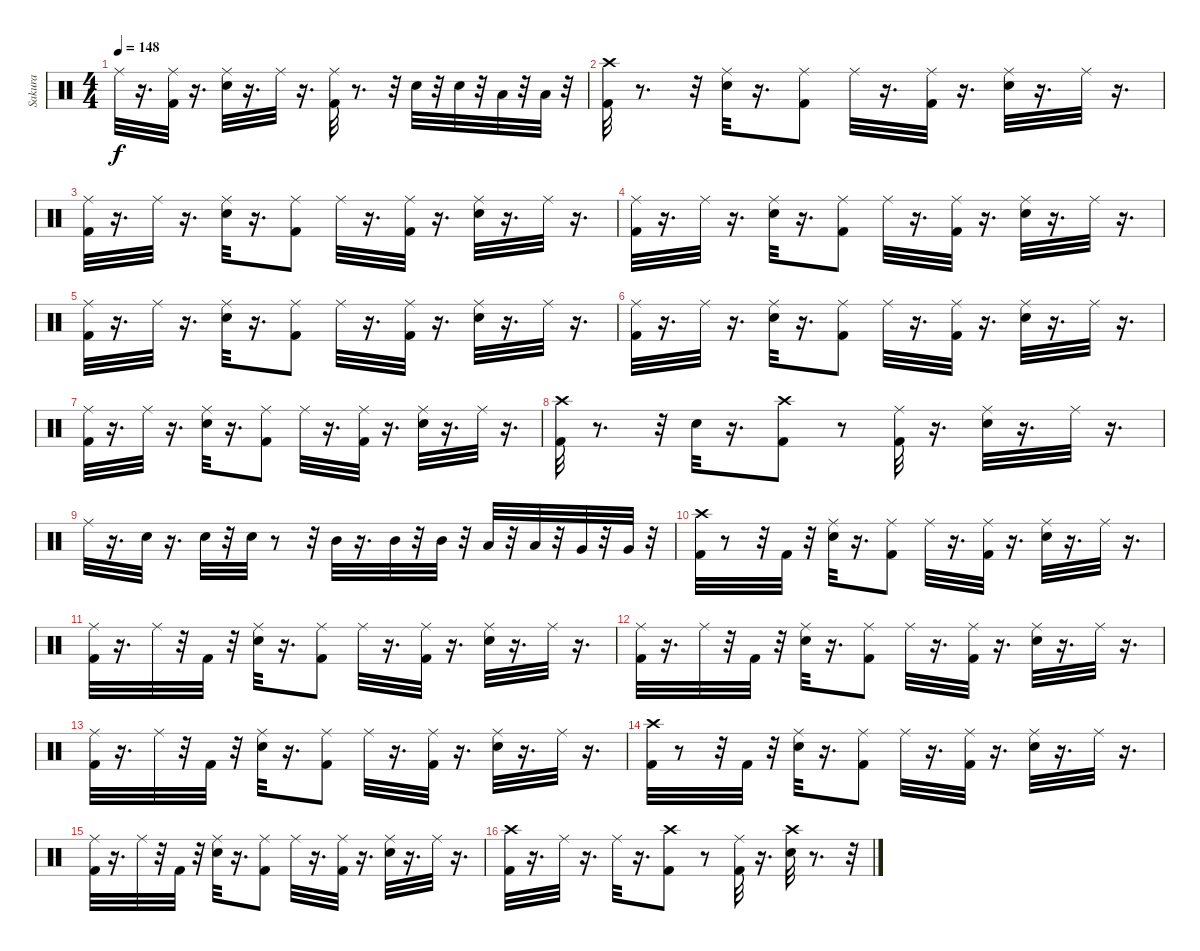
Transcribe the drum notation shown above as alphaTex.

\track ("Sakura" "Sakura") {instrument percussion}
\staff {score}
\articulation defaults
\ts (4 4)
\tempo 148
\clef neutral
\ks c "Ride (middle)".32{dy f}
r.16{d} ("Ride (middle)" "Kick (hit) 2").32 r.16{d} ("Ride (middle)" "Snare (hit) 2").32 r.16{d} "Ride (middle)".32 r.16{d} ("Ride (middle)" "Kick (hit) 2").32 r.8{d} r.32 "Snare (hit) 2".32 r.32 "Snare (hit) 2".32 r.32 "Low Tom (hit)".32 r.32 "Low Tom (hit)".32 r.32 |
("Crash high (hit)" "Kick (hit) 2").32 r.8{d} r.32 ("Snare (hit) 2" "Ride (middle)").32 r.16{d} ("Ride (middle)" "Kick (hit) 2").8 "Ride (middle)".32 r.16{d} ("Kick (hit) 2" "Ride (middle)").32 r.16{d} ("Ride (middle)" "Snare (hit) 2").32 r.16{d} "Ride (middle)".32 r.16{d} |
("Ride (middle)" "Kick (hit) 2").32 r.16{d} "Ride (middle)".32 r.16{d} ("Snare (hit) 2" "Ride (middle)").32 r.16{d} ("Ride (middle)" "Kick (hit) 2").8 "Ride (middle)".32 r.16{d} ("Kick (hit) 2" "Ride (middle)").32 r.16{d} ("Ride (middle)" "Snare (hit) 2").32 r.16{d} "Ride (middle)".32 r.16{d} |
("Ride (middle)" "Kick (hit) 2").32 r.16{d} "Ride (middle)".32 r.16{d} ("Snare (hit) 2" "Ride (middle)").32 r.16{d} ("Ride (middle)" "Kick (hit) 2").8 "Ride (middle)".32 r.16{d} ("Kick (hit) 2" "Ride (middle)").32 r.16{d} ("Ride (middle)" "Snare (hit) 2").32 r.16{d} "Ride (middle)".32 r.16{d} |
("Ride (middle)" "Kick (hit) 2").32 r.16{d} "Ride (middle)".32 r.16{d} ("Snare (hit) 2" "Ride (middle)").32 r.16{d} ("Ride (middle)" "Kick (hit) 2").8 "Ride (middle)".32 r.16{d} ("Kick (hit) 2" "Ride (middle)").32 r.16{d} ("Ride (middle)" "Snare (hit) 2").32 r.16{d} "Ride (middle)".32 r.16{d} |
("Ride (middle)" "Kick (hit) 2").32 r.16{d} "Ride (middle)".32 r.16{d} ("Snare (hit) 2" "Ride (middle)").32 r.16{d} ("Ride (middle)" "Kick (hit) 2").8 "Ride (middle)".32 r.16{d} ("Kick (hit) 2" "Ride (middle)").32 r.16{d} ("Ride (middle)" "Snare (hit) 2").32 r.16{d} "Ride (middle)".32 r.16{d} |
("Ride (middle)" "Kick (hit) 2").32 r.16{d} "Ride (middle)".32 r.16{d} ("Snare (hit) 2" "Ride (middle)").32 r.16{d} ("Ride (middle)" "Kick (hit) 2").8 "Ride (middle)".32 r.16{d} ("Kick (hit) 2" "Ride (middle)").32 r.16{d} ("Ride (middle)" "Snare (hit) 2").32 r.16{d} "Ride (middle)".32 r.16{d} |
("Crash high (hit)" "Kick (hit) 2").32 r.8{d} r.32 "Snare (hit) 2".32 r.16{d} ("Crash high (hit)" "Kick (hit) 2").8 r.8 ("Ride (middle)" "Kick (hit) 2").32 r.16{d} ("Ride (middle)" "Snare (hit) 2").32 r.16{d} "Ride (middle)".32 r.16{d} |
"Ride (middle)".32 r.16{d} "Snare (hit) 2".32 r.16{d} "Snare (hit) 2".32 r.32 "Snare (hit) 2".32 r.8 r.32 "Mid Tom (hit)".32 r.16{d} "Mid Tom (hit)".32 r.32 "Mid Tom (hit)".32 r.32 "Low Tom (hit)".32 r.32 "Low Tom (hit)".32 r.32 "Very Low Tom (hit)".32 r.32 "Very Low Tom (hit)".32 r.32 |
("Crash high (hit)" "Kick (hit) 2").32 r.8 r.32 "Kick (hit) 2".32 r.32 ("Ride (middle)" "Snare (hit) 2").32 r.16{d} ("Ride (middle)" "Kick (hit) 2").8 "Ride (middle)".32 r.16{d} ("Ride (middle)" "Kick (hit) 2").32 r.16{d} ("Ride (middle)" "Snare (hit) 2").32 r.16{d} "Ride (middle)".32 r.16{d} |
("Kick (hit) 2" "Ride (middle)").32 r.16{d} "Ride (middle)".32 r.32 "Kick (hit) 2".32 r.32 ("Ride (middle)" "Snare (hit) 2").32 r.16{d} ("Ride (middle)" "Kick (hit) 2").8 "Ride (middle)".32 r.16{d} ("Ride (middle)" "Kick (hit) 2").32 r.16{d} ("Ride (middle)" "Snare (hit) 2").32 r.16{d} "Ride (middle)".32 r.16{d} |
("Kick (hit) 2" "Ride (middle)").32 r.16{d} "Ride (middle)".32 r.32 "Kick (hit) 2".32 r.32 ("Ride (middle)" "Snare (hit) 2").32 r.16{d} ("Ride (middle)" "Kick (hit) 2").8 "Ride (middle)".32 r.16{d} ("Ride (middle)" "Kick (hit) 2").32 r.16{d} ("Ride (middle)" "Snare (hit) 2").32 r.16{d} "Ride (middle)".32 r.16{d} |
("Kick (hit) 2" "Ride (middle)").32 r.16{d} "Ride (middle)".32 r.32 "Kick (hit) 2".32 r.32 ("Ride (middle)" "Snare (hit) 2").32 r.16{d} ("Ride (middle)" "Kick (hit) 2").8 "Ride (middle)".32 r.16{d} ("Ride (middle)" "Kick (hit) 2").32 r.16{d} ("Ride (middle)" "Snare (hit) 2").32 r.16{d} "Ride (middle)".32 r.16{d} |
("Crash high (hit)" "Kick (hit) 2").32 r.8 r.32 "Kick (hit) 2".32 r.32 ("Ride (middle)" "Snare (hit) 2").32 r.16{d} ("Ride (middle)" "Kick (hit) 2").8 "Ride (middle)".32 r.16{d} ("Ride (middle)" "Kick (hit) 2").32 r.16{d} ("Ride (middle)" "Snare (hit) 2").32 r.16{d} "Ride (middle)".32 r.16{d} |
("Kick (hit) 2" "Ride (middle)").32 r.16{d} "Ride (middle)".32 r.32 "Kick (hit) 2".32 r.32 ("Ride (middle)" "Snare (hit) 2").32 r.16{d} ("Ride (middle)" "Kick (hit) 2").8 "Ride (middle)".32 r.16{d} ("Ride (middle)" "Kick (hit) 2").32 r.16{d} ("Ride (middle)" "Snare (hit) 2").32 r.16{d} "Ride (middle)".32 r.16{d} |
("Crash high (hit)" "Kick (hit) 2").32 r.16{d} "Ride (middle)".32 r.16{d} "Ride (middle)".32 r.16{d} ("Crash high (hit)" "Kick (hit) 2").8 r.8 ("Ride (middle)" "Kick (hit) 2").32 r.16{d} ("Crash high (hit)" "Snare (hit) 2").32 r.8{d} r.32
